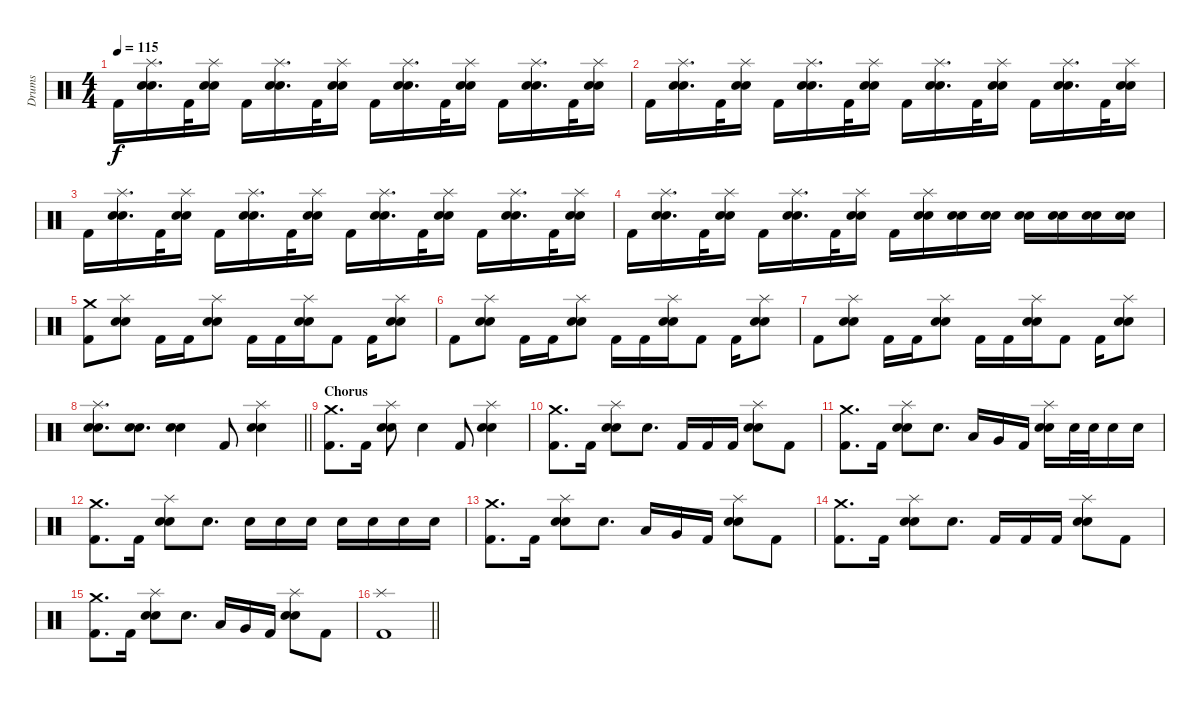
\track ("Drums" "Drums") {instrument percussion}
\staff {score}
\articulation defaults
\ts (4 4)
\tempo 115
\clef neutral
\ks c "Kick (hit) 2".16{dy f}
("Splash (hit)" "Electric Snare (hit)" "Snare (hit) 2").16{d} "Kick (hit) 2".32 ("Splash (hit)" "Electric Snare (hit)" "Snare (hit) 2").16 "Kick (hit) 2".16 ("Splash (hit)" "Electric Snare (hit)" "Snare (hit) 2").16{d} "Kick (hit) 2".32 ("Splash (hit)" "Electric Snare (hit)" "Snare (hit) 2").16 "Kick (hit) 2".16 ("Splash (hit)" "Electric Snare (hit)" "Snare (hit) 2").16{d} "Kick (hit) 2".32 ("Splash (hit)" "Electric Snare (hit)" "Snare (hit) 2").16 "Kick (hit) 2".16 ("Splash (hit)" "Electric Snare (hit)" "Snare (hit) 2").16{d} "Kick (hit) 2".32 ("Splash (hit)" "Electric Snare (hit)" "Snare (hit) 2").16 |
"Kick (hit) 2".16 ("Splash (hit)" "Electric Snare (hit)" "Snare (hit) 2").16{d} "Kick (hit) 2".32 ("Splash (hit)" "Electric Snare (hit)" "Snare (hit) 2").16 "Kick (hit) 2".16 ("Splash (hit)" "Electric Snare (hit)" "Snare (hit) 2").16{d} "Kick (hit) 2".32 ("Splash (hit)" "Electric Snare (hit)" "Snare (hit) 2").16 "Kick (hit) 2".16 ("Splash (hit)" "Electric Snare (hit)" "Snare (hit) 2").16{d} "Kick (hit) 2".32 ("Splash (hit)" "Electric Snare (hit)" "Snare (hit) 2").16 "Kick (hit) 2".16 ("Splash (hit)" "Electric Snare (hit)" "Snare (hit) 2").16{d} "Kick (hit) 2".32 ("Splash (hit)" "Electric Snare (hit)" "Snare (hit) 2").16 |
"Kick (hit) 2".16 ("Splash (hit)" "Electric Snare (hit)" "Snare (hit) 2").16{d} "Kick (hit) 2".32 ("Splash (hit)" "Electric Snare (hit)" "Snare (hit) 2").16 "Kick (hit) 2".16 ("Splash (hit)" "Electric Snare (hit)" "Snare (hit) 2").16{d} "Kick (hit) 2".32 ("Splash (hit)" "Electric Snare (hit)" "Snare (hit) 2").16 "Kick (hit) 2".16 ("Splash (hit)" "Electric Snare (hit)" "Snare (hit) 2").16{d} "Kick (hit) 2".32 ("Splash (hit)" "Electric Snare (hit)" "Snare (hit) 2").16 "Kick (hit) 2".16 ("Splash (hit)" "Electric Snare (hit)" "Snare (hit) 2").16{d} "Kick (hit) 2".32 ("Splash (hit)" "Electric Snare (hit)" "Snare (hit) 2").16 |
"Kick (hit) 2".16 ("Splash (hit)" "Electric Snare (hit)" "Snare (hit) 2").16{d} "Kick (hit) 2".32 ("Splash (hit)" "Electric Snare (hit)" "Snare (hit) 2").16 "Kick (hit) 2".16 ("Splash (hit)" "Electric Snare (hit)" "Snare (hit) 2").16{d} "Kick (hit) 2".32 ("Splash (hit)" "Electric Snare (hit)" "Snare (hit) 2").16 "Kick (hit) 2".16 ("Splash (hit)" "Electric Snare (hit)" "Snare (hit) 2").16 ("Electric Snare (hit)" "Snare (hit) 2").16 ("Electric Snare (hit)" "Snare (hit) 2").16 ("Electric Snare (hit)" "Snare (hit) 2").16 ("Electric Snare (hit)" "Snare (hit) 2").16 ("Electric Snare (hit)" "Snare (hit) 2").16 ("Electric Snare (hit)" "Snare (hit) 2").16 |
("Crash medium (hit)" "Kick (hit) 2").8 ("Splash (hit)" "Electric Snare (hit)" "Snare (hit) 2").8 "Kick (hit) 2".16 "Kick (hit) 2".16 ("Splash (hit)" "Electric Snare (hit)" "Snare (hit) 2").8 "Kick (hit) 2".16 "Kick (hit) 2".16 ("Splash (hit)" "Electric Snare (hit)" "Snare (hit) 2").16 "Kick (hit) 2".8 "Kick (hit) 2".16 ("Splash (hit)" "Electric Snare (hit)" "Snare (hit) 2").8 |
"Kick (hit) 2".8 ("Splash (hit)" "Electric Snare (hit)" "Snare (hit) 2").8 "Kick (hit) 2".16 "Kick (hit) 2".16 ("Splash (hit)" "Electric Snare (hit)" "Snare (hit) 2").8 "Kick (hit) 2".16 "Kick (hit) 2".16 ("Splash (hit)" "Electric Snare (hit)" "Snare (hit) 2").16 "Kick (hit) 2".8 "Kick (hit) 2".16 ("Splash (hit)" "Electric Snare (hit)" "Snare (hit) 2").8 |
"Kick (hit) 2".8 ("Splash (hit)" "Electric Snare (hit)" "Snare (hit) 2").8 "Kick (hit) 2".16 "Kick (hit) 2".16 ("Splash (hit)" "Electric Snare (hit)" "Snare (hit) 2").8 "Kick (hit) 2".16 "Kick (hit) 2".16 ("Splash (hit)" "Electric Snare (hit)" "Snare (hit) 2").16 "Kick (hit) 2".8 "Kick (hit) 2".16 ("Splash (hit)" "Electric Snare (hit)" "Snare (hit) 2").8 |
\barLineRight lightlight
("Splash (hit)" "Electric Snare (hit)" "Snare (hit) 2").8{d} ("Electric Snare (hit)" "Snare (hit) 2").8{d} ("Electric Snare (hit)" "Snare (hit) 2").4 "Kick (hit) 2".8 ("Splash (hit)" "Electric Snare (hit)" "Snare (hit) 2").4 |
\section ("" "Chorus")
("Crash medium (hit)" "Kick (hit) 2").8{d} "Kick (hit) 2".16 ("Splash (hit)" "Electric Snare (hit)" "Snare (hit) 2").8 "Electric Snare (hit)".4 "Kick (hit) 2".8 ("Splash (hit)" "Electric Snare (hit)" "Snare (hit) 2").4 |
("Crash medium (hit)" "Kick (hit) 2").8{d} "Kick (hit) 2".16 ("Splash (hit)" "Electric Snare (hit)" "Snare (hit) 2").8 "Electric Snare (hit)".8{d} "Kick (hit) 2".16 "Kick (hit) 2".16 "Kick (hit) 2".16 ("Splash (hit)" "Electric Snare (hit)" "Snare (hit) 2").8 "Kick (hit) 2".8 |
("Crash medium (hit)" "Kick (hit) 2").8{d} "Kick (hit) 2".16 ("Splash (hit)" "Electric Snare (hit)" "Snare (hit) 2").8 "Electric Snare (hit)".8{d} "Low Tom (hit)".16 "Very Low Tom (hit)".16 "Kick (hit) 2".16 ("Splash (hit)" "Electric Snare (hit)" "Snare (hit) 2").16 "Electric Snare (hit)".32 "Electric Snare (hit)".32 "Electric Snare (hit)".16 "Electric Snare (hit)".16 |
("Crash medium (hit)" "Kick (hit) 2").8{d} "Kick (hit) 2".16 ("Splash (hit)" "Electric Snare (hit)" "Snare (hit) 2").8 "Electric Snare (hit)".8{d} "Electric Snare (hit)".16 "Electric Snare (hit)".16 "Electric Snare (hit)".16 "Electric Snare (hit)".16 "Electric Snare (hit)".16 "Electric Snare (hit)".16 "Electric Snare (hit)".16 |
("Crash medium (hit)" "Kick (hit) 2").8{d} "Kick (hit) 2".16 ("Splash (hit)" "Electric Snare (hit)" "Snare (hit) 2").8 "Electric Snare (hit)".8{d} "Low Tom (hit)".16 "Very Low Tom (hit)".16 "Kick (hit) 2".16 ("Splash (hit)" "Electric Snare (hit)" "Snare (hit) 2").8 "Kick (hit) 2".8 |
("Crash medium (hit)" "Kick (hit) 2").8{d} "Kick (hit) 2".16 ("Splash (hit)" "Electric Snare (hit)" "Snare (hit) 2").8 "Electric Snare (hit)".8{d} "Kick (hit) 2".16 "Kick (hit) 2".16 "Kick (hit) 2".16 ("Splash (hit)" "Electric Snare (hit)" "Snare (hit) 2").8 "Kick (hit) 2".8 |
("Crash medium (hit)" "Kick (hit) 2").8{d} "Kick (hit) 2".16 ("Splash (hit)" "Electric Snare (hit)" "Snare (hit) 2").8 "Electric Snare (hit)".8{d} "Low Tom (hit)".16 "Very Low Tom (hit)".16 "Kick (hit) 2".16 ("Splash (hit)" "Electric Snare (hit)" "Snare (hit) 2").8 "Kick (hit) 2".8 |
\barLineRight lightlight
("Splash (hit)" "Kick (hit) 2").1
